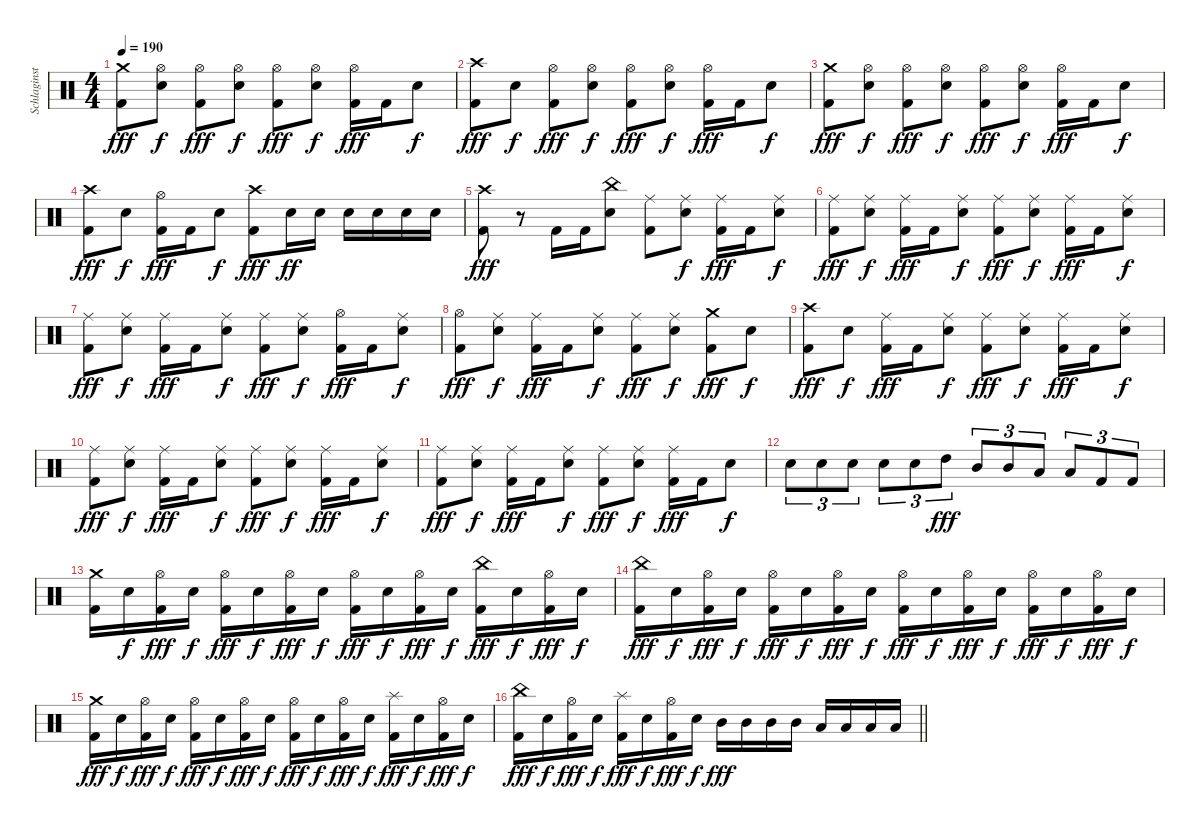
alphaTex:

\track ("Schlaginstrumente - Auswahl" "Schlaginst") {instrument percussion}
\staff {score}
\articulation defaults
\ts (4 4)
\tempo 190
\clef neutral
\ks c
("Crash medium (hit)" "Kick (hit) 2").8{dy fff} ("Hi-Hat (open)" "Snare (hit) 2").8{dy f} ("Hi-Hat (open)" "Kick (hit) 2").8{dy fff} ("Hi-Hat (open)" "Snare (hit) 2").8{dy f} ("Hi-Hat (open)" "Kick (hit) 2").8{dy fff} ("Hi-Hat (open)" "Snare (hit) 2").8{dy f} ("Hi-Hat (open)" "Kick (hit) 2").16{dy fff} "Kick (hit) 2".16 "Snare (hit) 2".8{dy f} |
("Crash high (hit)" "Kick (hit) 2").8{dy fff} "Snare (hit) 2".8{dy f} ("Hi-Hat (open)" "Kick (hit) 2").8{dy fff} ("Hi-Hat (open)" "Snare (hit) 2").8{dy f} ("Hi-Hat (open)" "Kick (hit) 2").8{dy fff} ("Hi-Hat (open)" "Snare (hit) 2").8{dy f} ("Hi-Hat (open)" "Kick (hit) 2").16{dy fff} "Kick (hit) 2".16 "Snare (hit) 2".8{dy f} |
("Crash medium (hit)" "Kick (hit) 2").8{dy fff} ("Hi-Hat (open)" "Snare (hit) 2").8{dy f} ("Hi-Hat (open)" "Kick (hit) 2").8{dy fff} ("Hi-Hat (open)" "Snare (hit) 2").8{dy f} ("Hi-Hat (open)" "Kick (hit) 2").8{dy fff} ("Hi-Hat (open)" "Snare (hit) 2").8{dy f} ("Hi-Hat (open)" "Kick (hit) 2").16{dy fff} "Kick (hit) 2".16 "Snare (hit) 2".8{dy f} |
("Crash high (hit)" "Kick (hit) 2").8{dy fff} "Snare (hit) 2".8{dy f} ("Hi-Hat (open)" "Kick (hit) 2").16{dy fff} "Kick (hit) 2".16 "Snare (hit) 2".8{dy f} ("Crash high (hit)" "Kick (hit) 2").8{dy fff} "Snare (hit) 2".16{dy ff} "Snare (hit) 2".16 "Snare (hit) 2".16 "Snare (hit) 2".16 "Snare (hit) 2".16 "Snare (hit) 2".16 |
("Crash high (hit)" "Kick (hit) 2").8{dy fff} r.8 "Kick (hit) 2".16 "Kick (hit) 2".16 ("China (hit)" "Snare (hit) 2").8 ("Ride (middle)" "Kick (hit) 2").8 ("Ride (middle)" "Snare (hit) 2").8{dy f} ("Ride (middle)" "Kick (hit) 2").16{dy fff} "Kick (hit) 2".16 ("Ride (middle)" "Snare (hit) 2").8{dy f} |
("Ride (middle)" "Kick (hit) 2").8{dy fff} ("Ride (middle)" "Snare (hit) 2").8{dy f} ("Ride (middle)" "Kick (hit) 2").16{dy fff} "Kick (hit) 2".16 ("Ride (middle)" "Snare (hit) 2").8{dy f} ("Ride (middle)" "Kick (hit) 2").8{dy fff} ("Ride (middle)" "Snare (hit) 2").8{dy f} ("Ride (middle)" "Kick (hit) 2").16{dy fff} "Kick (hit) 2".16 ("Ride (middle)" "Snare (hit) 2").8{dy f} |
("Ride (middle)" "Kick (hit) 2").8{dy fff} ("Ride (middle)" "Snare (hit) 2").8{dy f} ("Ride (middle)" "Kick (hit) 2").16{dy fff} "Kick (hit) 2".16 ("Ride (middle)" "Snare (hit) 2").8{dy f} ("Ride (middle)" "Kick (hit) 2").8{dy fff} ("Ride (middle)" "Snare (hit) 2").8{dy f} ("Hi-Hat (open)" "Kick (hit) 2").16{dy fff} "Kick (hit) 2".16 ("Ride (middle)" "Snare (hit) 2").8{dy f} |
("Hi-Hat (open)" "Kick (hit) 2").8{dy fff} ("Ride (middle)" "Snare (hit) 2").8{dy f} ("Ride (middle)" "Kick (hit) 2").16{dy fff} "Kick (hit) 2".16 ("Ride (middle)" "Snare (hit) 2").8{dy f} ("Ride (middle)" "Kick (hit) 2").8{dy fff} ("Ride (middle)" "Snare (hit) 2").8{dy f} ("Crash medium (hit)" "Kick (hit) 2").8{dy fff} "Snare (hit) 2".8{dy f} |
("Crash high (hit)" "Kick (hit) 2").8{dy fff} "Snare (hit) 2".8{dy f} ("Ride (middle)" "Kick (hit) 2").16{dy fff} "Kick (hit) 2".16 ("Ride (middle)" "Snare (hit) 2").8{dy f} ("Ride (middle)" "Kick (hit) 2").8{dy fff} ("Ride (middle)" "Snare (hit) 2").8{dy f} ("Ride (middle)" "Kick (hit) 2").16{dy fff} "Kick (hit) 2".16 ("Ride (middle)" "Snare (hit) 2").8{dy f} |
("Ride (middle)" "Kick (hit) 2").8{dy fff} ("Ride (middle)" "Snare (hit) 2").8{dy f} ("Ride (middle)" "Kick (hit) 2").16{dy fff} "Kick (hit) 2".16 ("Ride (middle)" "Snare (hit) 2").8{dy f} ("Ride (middle)" "Kick (hit) 2").8{dy fff} ("Ride (middle)" "Snare (hit) 2").8{dy f} ("Ride (middle)" "Kick (hit) 2").16{dy fff} "Kick (hit) 2".16 ("Ride (middle)" "Snare (hit) 2").8{dy f} |
("Ride (middle)" "Kick (hit) 2").8{dy fff} ("Ride (middle)" "Snare (hit) 2").8{dy f} ("Ride (middle)" "Kick (hit) 2").16{dy fff} "Kick (hit) 2".16 ("Ride (middle)" "Snare (hit) 2").8{dy f} ("Ride (middle)" "Kick (hit) 2").8{dy fff} ("Ride (middle)" "Snare (hit) 2").8{dy f} ("Ride (middle)" "Kick (hit) 2").16{dy fff} "Kick (hit) 2".16 "Snare (hit) 2".8{dy f} |
"Snare (hit) 2".8{tu (3 2)} "Snare (hit) 2".8{tu (3 2)} "Snare (hit) 2".8{tu (3 2)} "Snare (hit) 2".8{tu (3 2)} "Snare (hit) 2".8{tu (3 2)} "High Tom (hit)".8{tu (3 2) dy fff} "Mid Tom (hit)".8{tu (3 2)} "Mid Tom (hit)".8{tu (3 2)} "Low Tom (hit)".8{tu (3 2)} "Low Tom (hit)".8{tu (3 2)} "Kick (hit) 2".8{tu (3 2)} "Kick (hit) 2".8{tu (3 2)} |
("Crash medium (hit)" "Kick (hit) 2").16 "Snare (hit) 2".16{dy f} ("Hi-Hat (open)" "Kick (hit) 2").16{dy fff} "Snare (hit) 2".16{dy f} ("Hi-Hat (open)" "Kick (hit) 2").16{dy fff} "Snare (hit) 2".16{dy f} ("Hi-Hat (open)" "Kick (hit) 2").16{dy fff} "Snare (hit) 2".16{dy f} ("Hi-Hat (open)" "Kick (hit) 2").16{dy fff} "Snare (hit) 2".16{dy f} ("Hi-Hat (open)" "Kick (hit) 2").16{dy fff} "Snare (hit) 2".16{dy f} ("China (hit)" "Kick (hit) 2").16{dy fff} "Snare (hit) 2".16{dy f} ("Hi-Hat (open)" "Kick (hit) 2").16{dy fff} "Snare (hit) 2".16{dy f} |
("China (hit)" "Kick (hit) 2").16{dy fff} "Snare (hit) 2".16{dy f} ("Hi-Hat (open)" "Kick (hit) 2").16{dy fff} "Snare (hit) 2".16{dy f} ("Hi-Hat (open)" "Kick (hit) 2").16{dy fff} "Snare (hit) 2".16{dy f} ("Hi-Hat (open)" "Kick (hit) 2").16{dy fff} "Snare (hit) 2".16{dy f} ("Hi-Hat (open)" "Kick (hit) 2").16{dy fff} "Snare (hit) 2".16{dy f} ("Hi-Hat (open)" "Kick (hit) 2").16{dy fff} "Snare (hit) 2".16{dy f} ("Hi-Hat (open)" "Kick (hit) 2").16{dy fff} "Snare (hit) 2".16{dy f} ("Hi-Hat (open)" "Kick (hit) 2").16{dy fff} "Snare (hit) 2".16{dy f} |
("Crash medium (hit)" "Kick (hit) 2").16{dy fff} "Snare (hit) 2".16{dy f} ("Hi-Hat (open)" "Kick (hit) 2").16{dy fff} "Snare (hit) 2".16{dy f} ("Hi-Hat (open)" "Kick (hit) 2").16{dy fff} "Snare (hit) 2".16{dy f} ("Hi-Hat (open)" "Kick (hit) 2").16{dy fff} "Snare (hit) 2".16{dy f} ("Hi-Hat (open)" "Kick (hit) 2").16{dy fff} "Snare (hit) 2".16{dy f} ("Hi-Hat (open)" "Kick (hit) 2").16{dy fff} "Snare (hit) 2".16{dy f} ("Splash (hit)" "Kick (hit) 2").16{dy fff} "Snare (hit) 2".16{dy f} ("Hi-Hat (open)" "Kick (hit) 2").16{dy fff} "Snare (hit) 2".16{dy f} |
\barLineRight lightlight
("China (hit)" "Kick (hit) 2").16{dy fff} "Snare (hit) 2".16{dy f} ("Hi-Hat (open)" "Kick (hit) 2").16{dy fff} "Snare (hit) 2".16{dy f} ("Splash (hit)" "Kick (hit) 2").16{dy fff} "Snare (hit) 2".16{dy f} ("Hi-Hat (open)" "Kick (hit) 2").16{dy fff} "Snare (hit) 2".16{dy f} "Mid Tom (hit)".16{dy fff} "Mid Tom (hit)".16 "Mid Tom (hit)".16 "Mid Tom (hit)".16 "Low Tom (hit)".16 "Low Tom (hit)".16 "Low Tom (hit)".16 "Low Tom (hit)".16
